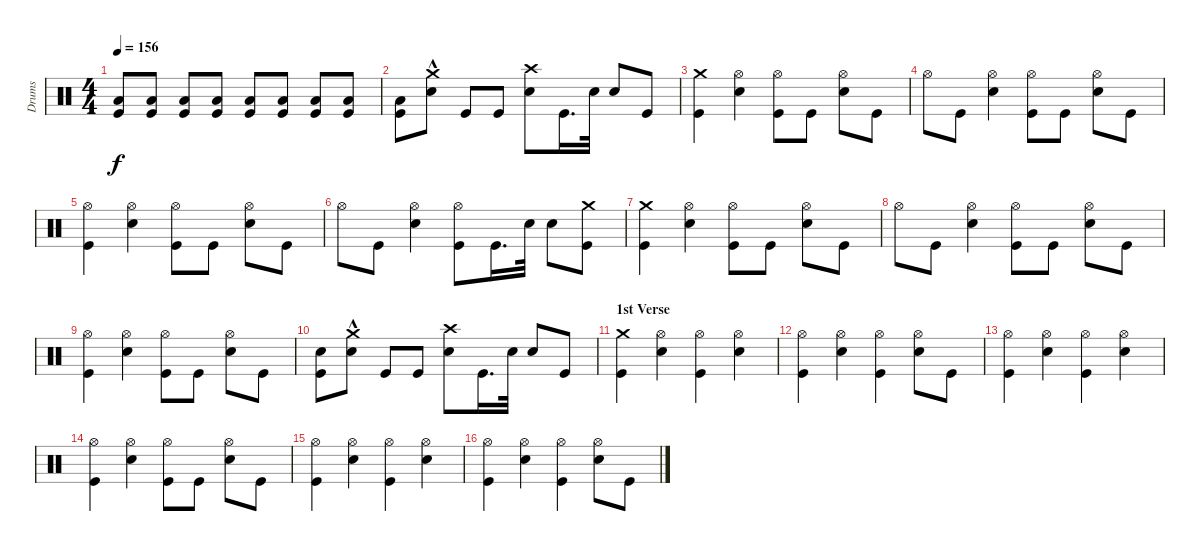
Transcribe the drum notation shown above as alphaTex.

\track ("Drums" "Drums") {instrument percussion}
\staff {score}
\articulation defaults
\ts (4 4)
\tempo 156
\clef neutral
\ks c
("Kick (hit)" "Low Floor Tom (hit)").8{dy f} ("Low Floor Tom (hit)" "Kick (hit)").8 ("Low Floor Tom (hit)" "Kick (hit)").8 ("Low Floor Tom (hit)" "Kick (hit)").8 ("Low Floor Tom (hit)" "Kick (hit)").8 ("Low Floor Tom (hit)" "Kick (hit)").8 ("Low Floor Tom (hit)" "Kick (hit)").8 ("Low Floor Tom (hit)" "Kick (hit)").8 |
("Low Floor Tom (hit)" "Kick (hit)").8 ("Crash medium (hit)"{hac} "Electric Snare (hit)").8 "Kick (hit)".8 "Kick (hit)".8 ("Electric Snare (hit)" "Crash high (hit)").8 "Kick (hit)".16{d} "Electric Snare (hit)".32 "Electric Snare (hit)".8 "Kick (hit)".8 |
("Kick (hit)" "Crash medium (hit)").4 ("Electric Snare (hit)" "Hi-Hat (open)").4 ("Kick (hit)" "Hi-Hat (open)").8 "Kick (hit)".8 ("Electric Snare (hit)" "Hi-Hat (open)").8 "Kick (hit)".8 |
"Hi-Hat (open)".8 "Kick (hit)".8 ("Electric Snare (hit)" "Hi-Hat (open)").4 ("Kick (hit)" "Hi-Hat (open)").8 "Kick (hit)".8 ("Electric Snare (hit)" "Hi-Hat (open)").8 "Kick (hit)".8 |
("Hi-Hat (open)" "Kick (hit)").4 ("Hi-Hat (open)" "Electric Snare (hit)").4 ("Hi-Hat (open)" "Kick (hit)").8 "Kick (hit)".8 ("Hi-Hat (open)" "Electric Snare (hit)").8 "Kick (hit)".8 |
"Hi-Hat (open)".8 "Kick (hit)".8 ("Electric Snare (hit)" "Hi-Hat (open)").4 ("Kick (hit)" "Hi-Hat (open)").8 "Kick (hit)".16{d} "Electric Snare (hit)".32 "Electric Snare (hit)".8 ("Kick (hit)" "Crash medium (hit)").8 |
("Kick (hit)" "Crash medium (hit)").4 ("Electric Snare (hit)" "Hi-Hat (open)").4 ("Kick (hit)" "Hi-Hat (open)").8 "Kick (hit)".8 ("Electric Snare (hit)" "Hi-Hat (open)").8 "Kick (hit)".8 |
"Hi-Hat (open)".8 "Kick (hit)".8 ("Electric Snare (hit)" "Hi-Hat (open)").4 ("Kick (hit)" "Hi-Hat (open)").8 "Kick (hit)".8 ("Electric Snare (hit)" "Hi-Hat (open)").8 "Kick (hit)".8 |
("Hi-Hat (open)" "Kick (hit)").4 ("Hi-Hat (open)" "Electric Snare (hit)").4 ("Hi-Hat (open)" "Kick (hit)").8 "Kick (hit)".8 ("Hi-Hat (open)" "Electric Snare (hit)").8 "Kick (hit)".8 |
("Electric Snare (hit)" "Kick (hit)").8 ("Crash medium (hit)"{hac} "Electric Snare (hit)").8 "Kick (hit)".8 "Kick (hit)".8 ("Electric Snare (hit)" "Crash high (hit)").8 "Kick (hit)".16{d} "Electric Snare (hit)".32 "Electric Snare (hit)".8 "Kick (hit)".8 |
\section ("" "1st Verse")
("Kick (hit)" "Crash medium (hit)").4 ("Hi-Hat (open)" "Electric Snare (hit)").4 ("Hi-Hat (open)" "Kick (hit)").4 ("Hi-Hat (open)" "Electric Snare (hit)").4 |
("Kick (hit)" "Hi-Hat (open)").4 ("Electric Snare (hit)" "Hi-Hat (open)").4 ("Kick (hit)" "Hi-Hat (open)").4 ("Electric Snare (hit)" "Hi-Hat (open)").8 "Kick (hit)".8 |
("Kick (hit)" "Hi-Hat (open)").4 ("Electric Snare (hit)" "Hi-Hat (open)").4 ("Kick (hit)" "Hi-Hat (open)").4 ("Electric Snare (hit)" "Hi-Hat (open)").4 |
("Kick (hit)" "Hi-Hat (open)").4 ("Electric Snare (hit)" "Hi-Hat (open)").4 ("Kick (hit)" "Hi-Hat (open)").8 "Kick (hit)".8 ("Electric Snare (hit)" "Hi-Hat (open)").8 "Kick (hit)".8 |
("Kick (hit)" "Hi-Hat (open)").4 ("Hi-Hat (open)" "Electric Snare (hit)").4 ("Hi-Hat (open)" "Kick (hit)").4 ("Hi-Hat (open)" "Electric Snare (hit)").4 |
("Kick (hit)" "Hi-Hat (open)").4 ("Electric Snare (hit)" "Hi-Hat (open)").4 ("Kick (hit)" "Hi-Hat (open)").4 ("Electric Snare (hit)" "Hi-Hat (open)").8 "Kick (hit)".8
